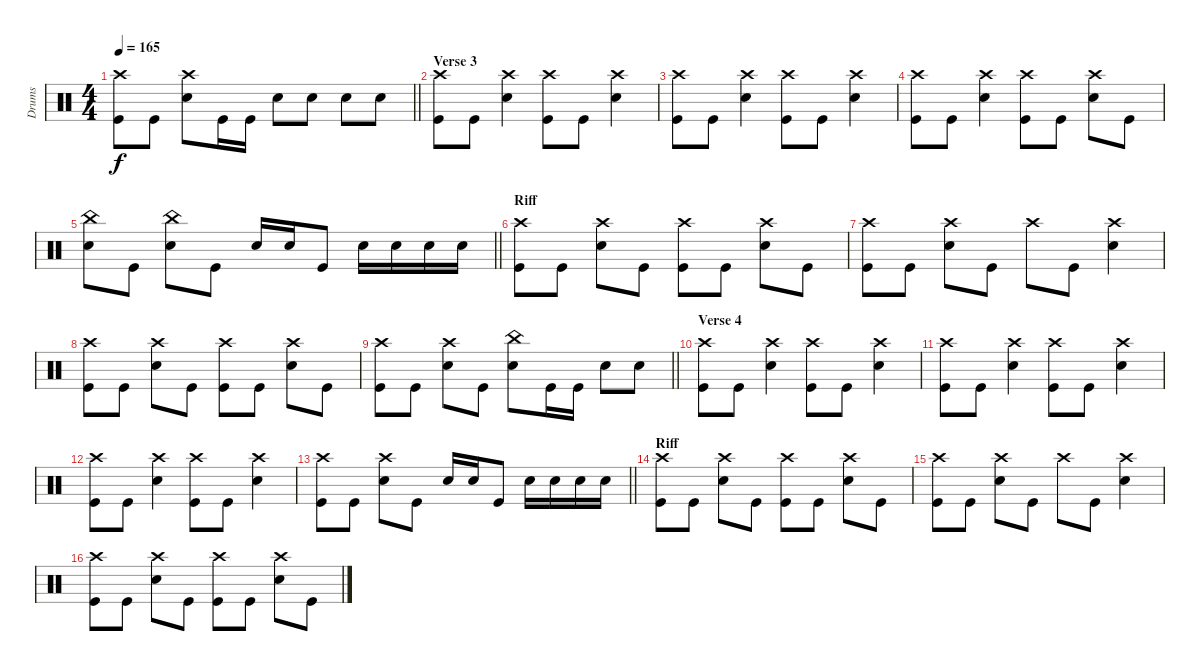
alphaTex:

\track ("Drums" "Drums") {instrument percussion}
\staff {score}
\articulation defaults
\ts (4 4)
\tempo 165
\clef neutral
\barLineRight lightlight
\ks c
("Kick (hit)" "Crash high (hit)").8{dy f} "Kick (hit)".8 ("Snare (hit) 2" "Crash high (hit)").8 "Kick (hit)".16 "Kick (hit)".16 "Snare (hit) 2".8 "Snare (hit) 2".8 "Snare (hit) 2".8 "Snare (hit) 2".8 |
\section ("" "Verse 3")
("Kick (hit)" "Crash high (hit)").8 "Kick (hit)".8 ("Snare (hit) 2" "Crash high (hit)").4 ("Kick (hit)" "Crash high (hit)").8 "Kick (hit)".8 ("Snare (hit) 2" "Crash high (hit)").4 |
("Kick (hit)" "Crash high (hit)").8 "Kick (hit)".8 ("Snare (hit) 2" "Crash high (hit)").4 ("Kick (hit)" "Crash high (hit)").8 "Kick (hit)".8 ("Snare (hit) 2" "Crash high (hit)").4 |
("Kick (hit)" "Crash high (hit)").8 "Kick (hit)".8 ("Snare (hit) 2" "Crash high (hit)").4 ("Kick (hit)" "Crash high (hit)").8 "Kick (hit)".8 ("Snare (hit) 2" "Crash high (hit)").8 "Kick (hit)".8 |
\barLineRight lightlight
("Snare (hit) 2" "China (hit)").8 "Kick (hit)".8 ("Snare (hit) 2" "China (hit)").8 "Kick (hit)".8 "Snare (hit) 2".16 "Snare (hit) 2".16 "Kick (hit)".8 "Snare (hit) 2".16 "Snare (hit) 2".16 "Snare (hit) 2".16 "Snare (hit) 2".16 |
\section ("" "Riff")
("Kick (hit)" "Crash high (hit)").8 "Kick (hit)".8 ("Snare (hit) 2" "Crash high (hit)").8 "Kick (hit)".8 ("Kick (hit)" "Crash high (hit)").8 "Kick (hit)".8 ("Snare (hit) 2" "Crash high (hit)").8 "Kick (hit)".8 |
("Kick (hit)" "Crash high (hit)").8 "Kick (hit)".8 ("Snare (hit) 2" "Crash high (hit)").8 "Kick (hit)".8 "Crash high (hit)".8 "Kick (hit)".8 ("Snare (hit) 2" "Crash high (hit)").4 |
("Kick (hit)" "Crash high (hit)").8 "Kick (hit)".8 ("Snare (hit) 2" "Crash high (hit)").8 "Kick (hit)".8 ("Kick (hit)" "Crash high (hit)").8 "Kick (hit)".8 ("Snare (hit) 2" "Crash high (hit)").8 "Kick (hit)".8 |
\barLineRight lightlight
("Kick (hit)" "Crash high (hit)").8 "Kick (hit)".8 ("Snare (hit) 2" "Crash high (hit)").8 "Kick (hit)".8 ("Snare (hit) 2" "China (hit)").8 "Kick (hit)".16 "Kick (hit)".16 "Snare (hit) 2".8 "Snare (hit) 2".8 |
\section ("" "Verse 4")
("Kick (hit)" "Crash high (hit)").8 "Kick (hit)".8 ("Snare (hit) 2" "Crash high (hit)").4 ("Kick (hit)" "Crash high (hit)").8 "Kick (hit)".8 ("Snare (hit) 2" "Crash high (hit)").4 |
("Kick (hit)" "Crash high (hit)").8 "Kick (hit)".8 ("Snare (hit) 2" "Crash high (hit)").4 ("Kick (hit)" "Crash high (hit)").8 "Kick (hit)".8 ("Snare (hit) 2" "Crash high (hit)").4 |
("Kick (hit)" "Crash high (hit)").8 "Kick (hit)".8 ("Snare (hit) 2" "Crash high (hit)").4 ("Kick (hit)" "Crash high (hit)").8 "Kick (hit)".8 ("Snare (hit) 2" "Crash high (hit)").4 |
\barLineRight lightlight
("Kick (hit)" "Crash high (hit)").8 "Kick (hit)".8 ("Snare (hit) 2" "Crash high (hit)").8 "Kick (hit)".8 "Snare (hit) 2".16 "Snare (hit) 2".16 "Kick (hit)".8 "Snare (hit) 2".16 "Snare (hit) 2".16 "Snare (hit) 2".16 "Snare (hit) 2".16 |
\section ("" "Riff")
("Kick (hit)" "Crash high (hit)").8 "Kick (hit)".8 ("Snare (hit) 2" "Crash high (hit)").8 "Kick (hit)".8 ("Kick (hit)" "Crash high (hit)").8 "Kick (hit)".8 ("Snare (hit) 2" "Crash high (hit)").8 "Kick (hit)".8 |
("Kick (hit)" "Crash high (hit)").8 "Kick (hit)".8 ("Snare (hit) 2" "Crash high (hit)").8 "Kick (hit)".8 "Crash high (hit)".8 "Kick (hit)".8 ("Snare (hit) 2" "Crash high (hit)").4 |
("Kick (hit)" "Crash high (hit)").8 "Kick (hit)".8 ("Snare (hit) 2" "Crash high (hit)").8 "Kick (hit)".8 ("Kick (hit)" "Crash high (hit)").8 "Kick (hit)".8 ("Snare (hit) 2" "Crash high (hit)").8 "Kick (hit)".8
